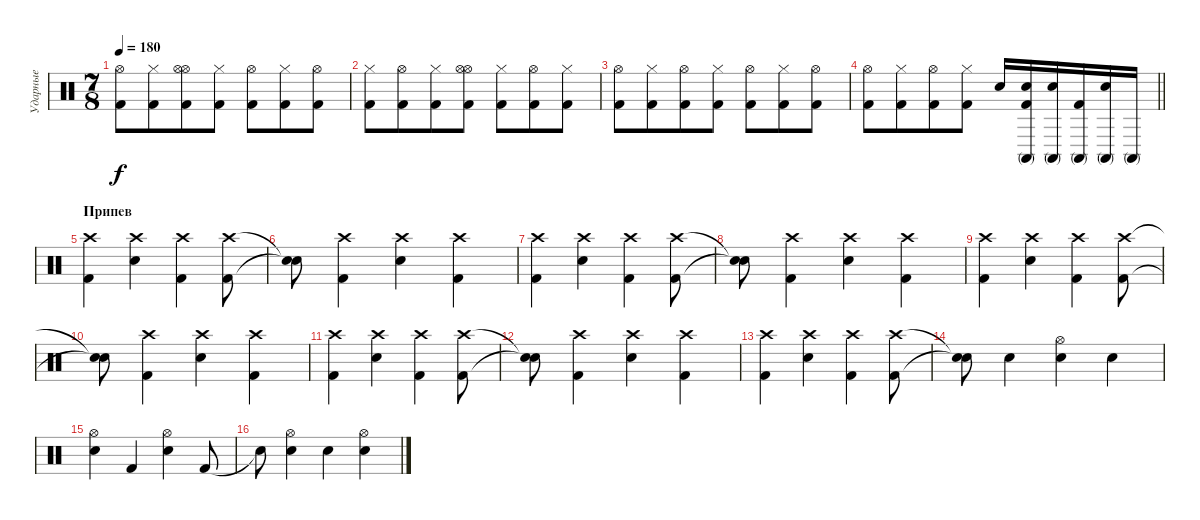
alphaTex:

\track ("Ударные" "Ударные") {instrument percussion}
\staff {score}
\articulation defaults
\ts (7 8)
\tempo 180
\clef neutral
\ks c
("Hi-Hat (open)" "Kick (hit) 2").8{dy f} ("Hi-Hat (closed)" "Kick (hit) 2").8 ("Hi-Hat (open)" "Hi-Hat (open)" "Kick (hit) 2").8 ("Hi-Hat (closed)" "Kick (hit) 2").8 ("Hi-Hat (open)" "Kick (hit) 2").8 ("Hi-Hat (closed)" "Kick (hit) 2").8 ("Hi-Hat (open)" "Kick (hit) 2").8 |
("Hi-Hat (closed)" "Kick (hit) 2").8 ("Hi-Hat (open)" "Kick (hit) 2").8 ("Hi-Hat (closed)" "Kick (hit) 2").8 ("Hi-Hat (open)" "Hi-Hat (open)" "Kick (hit) 2").8 ("Hi-Hat (closed)" "Kick (hit) 2").8 ("Hi-Hat (open)" "Kick (hit) 2").8 ("Hi-Hat (closed)" "Kick (hit) 2").8 |
("Hi-Hat (open)" "Kick (hit) 2").8 ("Hi-Hat (closed)" "Kick (hit) 2").8 ("Hi-Hat (open)" "Kick (hit) 2").8 ("Hi-Hat (closed)" "Kick (hit) 2").8 ("Hi-Hat (open)" "Kick (hit) 2").8 ("Hi-Hat (closed)" "Kick (hit) 2").8 ("Hi-Hat (open)" "Kick (hit) 2").8 |
\barLineRight lightlight
("Hi-Hat (open)" "Kick (hit) 2").8 ("Hi-Hat (closed)" "Kick (hit) 2").8 ("Hi-Hat (open)" "Kick (hit) 2").8 ("Hi-Hat (closed)" "Kick (hit) 2").8 "Electric Snare (hit)".16 ("Electric Snare (hit)" "Conga high (mute)" "Kick (hit) 2").16 ("Electric Snare (hit)" "Conga high (mute)").16 ("Conga high (mute)" "Kick (hit) 2").16 ("Electric Snare (hit)" "Conga high (mute)").16 "Conga high (mute)".16 |
\section ("" "Припев")
("Crash high (hit)" "Kick (hit) 2").4 ("Crash high (hit)" "Snare (hit) 2").4 ("Crash high (hit)" "Kick (hit) 2").4 ("Crash high (hit)" "Kick (hit) 2").8 |
("Snare (hit)"{t} "Snare (hit)"{t}).8 ("Crash high (hit)" "Kick (hit) 2").4 ("Crash high (hit)" "Snare (hit) 2").4 ("Crash high (hit)" "Kick (hit) 2").4 |
("Crash high (hit)" "Kick (hit) 2").4 ("Crash high (hit)" "Snare (hit) 2").4 ("Crash high (hit)" "Kick (hit) 2").4 ("Crash high (hit)" "Kick (hit) 2").8 |
("Snare (hit)"{t} "Snare (hit)"{t}).8 ("Crash high (hit)" "Kick (hit) 2").4 ("Crash high (hit)" "Snare (hit) 2").4 ("Crash high (hit)" "Kick (hit) 2").4 |
("Crash high (hit)" "Kick (hit) 2").4 ("Crash high (hit)" "Snare (hit) 2").4 ("Crash high (hit)" "Kick (hit) 2").4 ("Crash high (hit)" "Kick (hit) 2").8 |
("Snare (hit)"{t} "Snare (hit)"{t}).8 ("Crash high (hit)" "Kick (hit) 2").4 ("Crash high (hit)" "Snare (hit) 2").4 ("Crash high (hit)" "Kick (hit) 2").4 |
("Crash high (hit)" "Kick (hit) 2").4 ("Crash high (hit)" "Snare (hit) 2").4 ("Crash high (hit)" "Kick (hit) 2").4 ("Crash high (hit)" "Kick (hit) 2").8 |
("Snare (hit)"{t} "Snare (hit)"{t}).8 ("Crash high (hit)" "Kick (hit) 2").4 ("Crash high (hit)" "Snare (hit) 2").4 ("Crash high (hit)" "Kick (hit) 2").4 |
("Crash high (hit)" "Kick (hit) 2").4 ("Crash high (hit)" "Snare (hit) 2").4 ("Crash high (hit)" "Kick (hit) 2").4 ("Crash high (hit)" "Kick (hit) 2").8 |
("Snare (hit)"{t} "Snare (hit)"{t}).8 "Electric Snare (hit)".4 ("Hi-Hat (open)" "Snare (hit) 2").4 "Electric Snare (hit)".4 |
("Hi-Hat (open)" "Snare (hit) 2").4 "Kick (hit) 2".4 ("Hi-Hat (open)" "Snare (hit) 2").4 "Kick (hit) 2".8 |
"Snare (hit)"{t}.8 ("Hi-Hat (open)" "Snare (hit) 2").4 "Electric Snare (hit)".4 ("Hi-Hat (open)" "Snare (hit) 2").4
